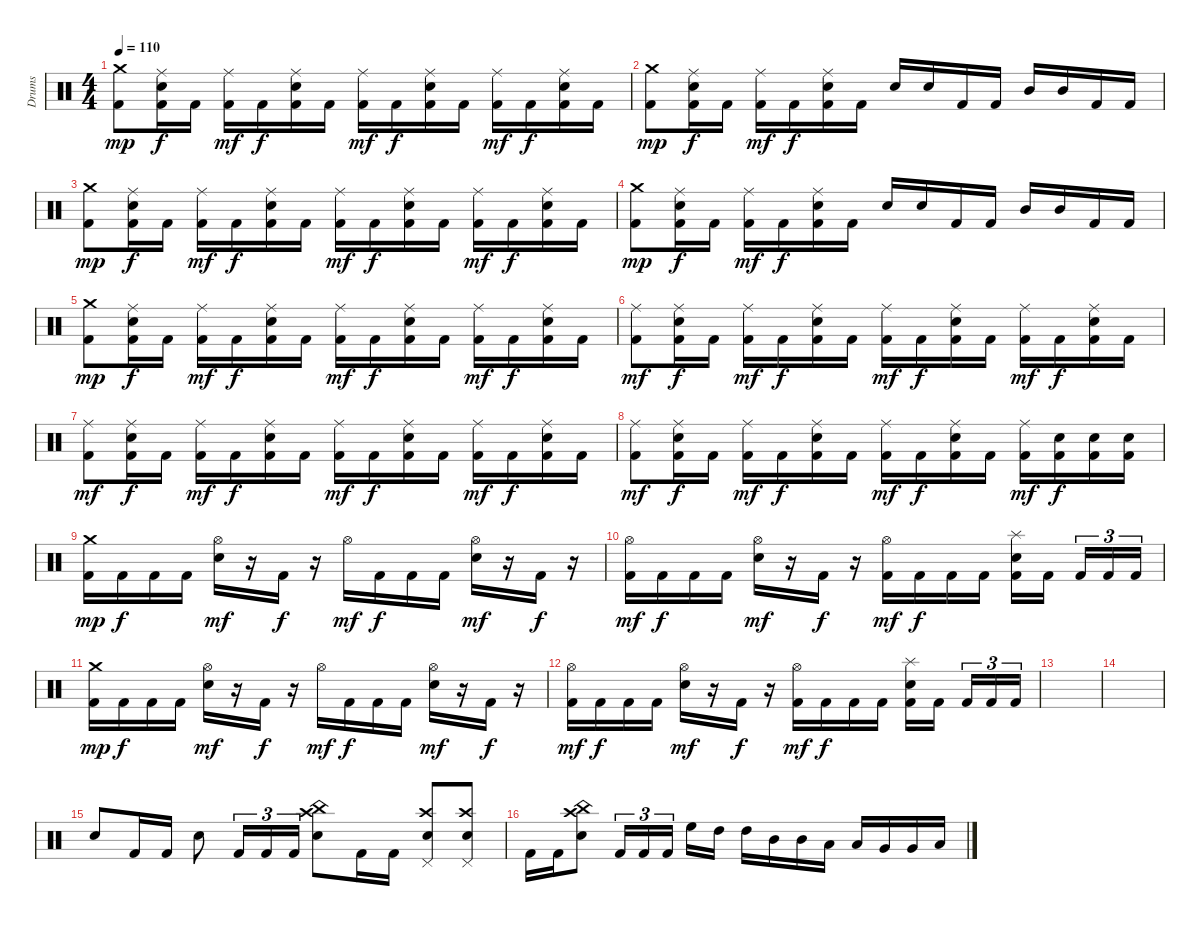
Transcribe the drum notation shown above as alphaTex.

\track ("Drums" "Drums") {instrument percussion}
\staff {score}
\articulation defaults
\ts (4 4)
\tempo 110
\clef neutral
\ks c
("Crash medium (hit)" "Kick (hit) 2").8{dy mp} ("Ride (middle)" "Electric Snare (hit)" "Kick (hit) 2").16{dy f} "Kick (hit) 2".16 ("Ride (middle)" "Kick (hit) 2").16{dy mf} "Kick (hit) 2".16{dy f} ("Ride (middle)" "Electric Snare (hit)" "Kick (hit) 2").16 "Kick (hit) 2".16 ("Ride (middle)" "Kick (hit) 2").16{dy mf} "Kick (hit) 2".16{dy f} ("Ride (middle)" "Electric Snare (hit)" "Kick (hit) 2").16 "Kick (hit) 2".16 ("Ride (middle)" "Kick (hit) 2").16{dy mf} "Kick (hit) 2".16{dy f} ("Ride (middle)" "Electric Snare (hit)" "Kick (hit) 2").16 "Kick (hit) 2".16 |
("Crash medium (hit)" "Kick (hit) 2").8{dy mp} ("Ride (middle)" "Electric Snare (hit)" "Kick (hit) 2").16{dy f} "Kick (hit) 2".16 ("Ride (middle)" "Kick (hit) 2").16{dy mf} "Kick (hit) 2".16{dy f} ("Ride (middle)" "Electric Snare (hit)" "Kick (hit) 2").16 "Kick (hit) 2".16 "Electric Snare (hit)".16 "Electric Snare (hit)".16 "Kick (hit) 2".16 "Kick (hit) 2".16 "Mid Tom (hit)".16 "Mid Tom (hit)".16 "Kick (hit) 2".16 "Kick (hit) 2".16 |
("Crash medium (hit)" "Kick (hit) 2").8{dy mp} ("Ride (middle)" "Electric Snare (hit)" "Kick (hit) 2").16{dy f} "Kick (hit) 2".16 ("Ride (middle)" "Kick (hit) 2").16{dy mf} "Kick (hit) 2".16{dy f} ("Ride (middle)" "Electric Snare (hit)" "Kick (hit) 2").16 "Kick (hit) 2".16 ("Ride (middle)" "Kick (hit) 2").16{dy mf} "Kick (hit) 2".16{dy f} ("Ride (middle)" "Electric Snare (hit)" "Kick (hit) 2").16 "Kick (hit) 2".16 ("Ride (middle)" "Kick (hit) 2").16{dy mf} "Kick (hit) 2".16{dy f} ("Ride (middle)" "Electric Snare (hit)" "Kick (hit) 2").16 "Kick (hit) 2".16 |
("Crash medium (hit)" "Kick (hit) 2").8{dy mp} ("Ride (middle)" "Electric Snare (hit)" "Kick (hit) 2").16{dy f} "Kick (hit) 2".16 ("Ride (middle)" "Kick (hit) 2").16{dy mf} "Kick (hit) 2".16{dy f} ("Ride (middle)" "Electric Snare (hit)" "Kick (hit) 2").16 "Kick (hit) 2".16 "Electric Snare (hit)".16 "Electric Snare (hit)".16 "Kick (hit) 2".16 "Kick (hit) 2".16 "Mid Tom (hit)".16 "Mid Tom (hit)".16 "Kick (hit) 2".16 "Kick (hit) 2".16 |
("Crash medium (hit)" "Kick (hit) 2").8{dy mp} ("Ride (middle)" "Electric Snare (hit)" "Kick (hit) 2").16{dy f} "Kick (hit) 2".16 ("Ride (middle)" "Kick (hit) 2").16{dy mf} "Kick (hit) 2".16{dy f} ("Ride (middle)" "Electric Snare (hit)" "Kick (hit) 2").16 "Kick (hit) 2".16 ("Ride (middle)" "Kick (hit) 2").16{dy mf} "Kick (hit) 2".16{dy f} ("Ride (middle)" "Electric Snare (hit)" "Kick (hit) 2").16 "Kick (hit) 2".16 ("Ride (middle)" "Kick (hit) 2").16{dy mf} "Kick (hit) 2".16{dy f} ("Ride (middle)" "Electric Snare (hit)" "Kick (hit) 2").16 "Kick (hit) 2".16 |
("Ride (middle)" "Kick (hit) 2").8{dy mf} ("Ride (middle)" "Electric Snare (hit)" "Kick (hit) 2").16{dy f} "Kick (hit) 2".16 ("Ride (middle)" "Kick (hit) 2").16{dy mf} "Kick (hit) 2".16{dy f} ("Ride (middle)" "Electric Snare (hit)" "Kick (hit) 2").16 "Kick (hit) 2".16 ("Ride (middle)" "Kick (hit) 2").16{dy mf} "Kick (hit) 2".16{dy f} ("Ride (middle)" "Electric Snare (hit)" "Kick (hit) 2").16 "Kick (hit) 2".16 ("Ride (middle)" "Kick (hit) 2").16{dy mf} "Kick (hit) 2".16{dy f} ("Ride (middle)" "Electric Snare (hit)" "Kick (hit) 2").16 "Kick (hit) 2".16 |
("Ride (middle)" "Kick (hit) 2").8{dy mf} ("Ride (middle)" "Electric Snare (hit)" "Kick (hit) 2").16{dy f} "Kick (hit) 2".16 ("Ride (middle)" "Kick (hit) 2").16{dy mf} "Kick (hit) 2".16{dy f} ("Ride (middle)" "Electric Snare (hit)" "Kick (hit) 2").16 "Kick (hit) 2".16 ("Ride (middle)" "Kick (hit) 2").16{dy mf} "Kick (hit) 2".16{dy f} ("Ride (middle)" "Electric Snare (hit)" "Kick (hit) 2").16 "Kick (hit) 2".16 ("Ride (middle)" "Kick (hit) 2").16{dy mf} "Kick (hit) 2".16{dy f} ("Ride (middle)" "Electric Snare (hit)" "Kick (hit) 2").16 "Kick (hit) 2".16 |
("Ride (middle)" "Kick (hit) 2").8{dy mf} ("Ride (middle)" "Electric Snare (hit)" "Kick (hit) 2").16{dy f} "Kick (hit) 2".16 ("Ride (middle)" "Kick (hit) 2").16{dy mf} "Kick (hit) 2".16{dy f} ("Ride (middle)" "Electric Snare (hit)" "Kick (hit) 2").16 "Kick (hit) 2".16 ("Ride (middle)" "Kick (hit) 2").16{dy mf} "Kick (hit) 2".16{dy f} ("Ride (middle)" "Electric Snare (hit)" "Kick (hit) 2").16 "Kick (hit) 2".16 ("Ride (middle)" "Kick (hit) 2").16{dy mf} ("Electric Snare (hit)" "Kick (hit) 2").16{dy f} ("Electric Snare (hit)" "Kick (hit) 2").16 ("Electric Snare (hit)" "Kick (hit) 2").16 |
("Crash medium (hit)" "Kick (hit) 2").16{dy mp} "Kick (hit) 2".16{dy f} "Kick (hit) 2".16 "Kick (hit) 2".16 ("Hi-Hat (open)" "Electric Snare (hit)").16{dy mf} r.16 "Kick (hit) 2".16{dy f} r.16 "Hi-Hat (open)".16{dy mf} "Kick (hit) 2".16{dy f} "Kick (hit) 2".16 "Kick (hit) 2".16 ("Hi-Hat (open)" "Electric Snare (hit)").16{dy mf} r.16 "Kick (hit) 2".16{dy f} r.16 |
("Hi-Hat (open)" "Kick (hit) 2").16{dy mf} "Kick (hit) 2".16{dy f} "Kick (hit) 2".16 "Kick (hit) 2".16 ("Hi-Hat (open)" "Electric Snare (hit)").16{dy mf} r.16 "Kick (hit) 2".16{dy f} r.16 ("Hi-Hat (open)" "Kick (hit) 2").16{dy mf} "Kick (hit) 2".16{dy f} "Kick (hit) 2".16 "Kick (hit) 2".16 ("Splash (hit)" "Electric Snare (hit)" "Kick (hit) 2").16 "Kick (hit) 2".16 "Kick (hit) 2".16{tu (3 2)} "Kick (hit) 2".16{tu (3 2)} "Kick (hit) 2".16{tu (3 2)} |
("Crash medium (hit)" "Kick (hit) 2").16{dy mp} "Kick (hit) 2".16{dy f} "Kick (hit) 2".16 "Kick (hit) 2".16 ("Hi-Hat (open)" "Electric Snare (hit)").16{dy mf} r.16 "Kick (hit) 2".16{dy f} r.16 "Hi-Hat (open)".16{dy mf} "Kick (hit) 2".16{dy f} "Kick (hit) 2".16 "Kick (hit) 2".16 ("Hi-Hat (open)" "Electric Snare (hit)").16{dy mf} r.16 "Kick (hit) 2".16{dy f} r.16 |
("Hi-Hat (open)" "Kick (hit) 2").16{dy mf} "Kick (hit) 2".16{dy f} "Kick (hit) 2".16 "Kick (hit) 2".16 ("Hi-Hat (open)" "Electric Snare (hit)").16{dy mf} r.16 "Kick (hit) 2".16{dy f} r.16 ("Hi-Hat (open)" "Kick (hit) 2").16{dy mf} "Kick (hit) 2".16{dy f} "Kick (hit) 2".16 "Kick (hit) 2".16 ("Splash (hit)" "Electric Snare (hit)" "Kick (hit) 2").16 "Kick (hit) 2".16 "Kick (hit) 2".16{tu (3 2)} "Kick (hit) 2".16{tu (3 2)} "Kick (hit) 2".16{tu (3 2)} |
|
|
"Snare (hit) 2".8 "Kick (hit) 2".16 "Kick (hit) 2".16 "Snare (hit) 2".8 "Kick (hit) 2".16{tu (3 2)} "Kick (hit) 2".16{tu (3 2)} "Kick (hit) 2".16{tu (3 2)} ("Crash high (hit)" "China (hit)" "Snare (hit) 2").8 "Kick (hit) 2".16 "Kick (hit) 2".16 ("Snare (hit) 2" "Crash high (hit)" "Pedal Hi-Hat (hit)").8 ("Snare (hit) 2" "Crash high (hit)" "Pedal Hi-Hat (hit)").8 |
"Kick (hit) 2".16 "Kick (hit) 2".16 ("Crash high (hit)" "Snare (hit) 2" "China (hit)").8 "Kick (hit) 2".16{tu (3 2)} "Kick (hit) 2".16{tu (3 2)} "Kick (hit) 2".16{tu (3 2)} "High Floor Tom (hit)".16 "High Tom (hit)".16 "High Tom (hit)".16 "Mid Tom (hit)".16 "Mid Tom (hit)".16 "Low Tom (hit)".16 "Low Tom (hit)".16 "Very Low Tom (hit)".16 "Very Low Tom (hit)".16 "Low Floor Tom (hit)".16
